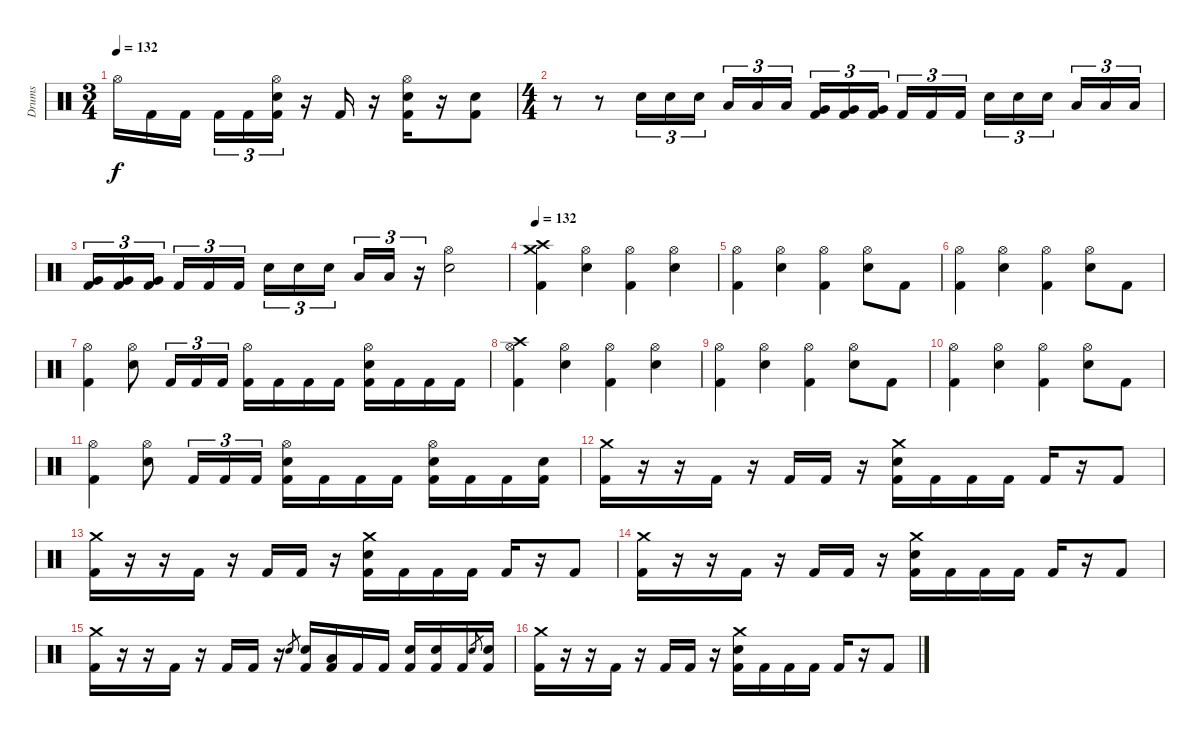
\track ("Drums" "Drums") {instrument percussion}
\staff {score}
\articulation defaults
\ts (3 4)
\tempo 132
\clef neutral
\ks c "Hi-Hat (open)".16{dy f} "Kick (hit) 2".16 "Kick (hit) 2".16{beam splitsecondary} "Kick (hit) 2".16{tu (3 2)} "Kick (hit) 2".16{tu (3 2)}
("Hi-Hat (open)" "Electric Snare (hit)" "Kick (hit) 2").16{tu (3 2)} r.16 "Kick (hit) 2".16 r.16 ("Hi-Hat (open)" "Electric Snare (hit)" "Kick (hit) 2").16 r.16 ("Electric Snare (hit)" "Kick (hit) 2").8 |
\ts (4 4)
r.8 r.8 "Electric Snare (hit)".16{tu (3 2)} "Electric Snare (hit)".16{tu (3 2)} "Electric Snare (hit)".16{tu (3 2) beam splitsecondary} "Low Tom (hit)".16{tu (3 2)} "Low Tom (hit)".16{tu (3 2)} "Low Tom (hit)".16{tu (3 2)} ("Very Low Tom (hit)" "Kick (hit) 2").16{tu (3 2)} ("Very Low Tom (hit)" "Kick (hit) 2").16{tu (3 2)} ("Very Low Tom (hit)" "Kick (hit) 2").16{tu (3 2) beam splitsecondary} "Kick (hit) 2".16{tu (3 2)} "Kick (hit) 2".16{tu (3 2)} "Kick (hit) 2".16{tu (3 2)} "Electric Snare (hit)".16{tu (3 2)} "Electric Snare (hit)".16{tu (3 2)} "Electric Snare (hit)".16{tu (3 2) beam splitsecondary} "Low Tom (hit)".16{tu (3 2)} "Low Tom (hit)".16{tu (3 2)} "Low Tom (hit)".16{tu (3 2)} |
("Very Low Tom (hit)" "Kick (hit) 2").16{tu (3 2)} ("Very Low Tom (hit)" "Kick (hit) 2").16{tu (3 2)} ("Very Low Tom (hit)" "Kick (hit) 2").16{tu (3 2) beam splitsecondary} "Kick (hit) 2".16{tu (3 2)} "Kick (hit) 2".16{tu (3 2)} "Kick (hit) 2".16{tu (3 2)} "Electric Snare (hit)".16{tu (3 2)} "Electric Snare (hit)".16{tu (3 2)} "Electric Snare (hit)".16{tu (3 2) beam splitsecondary} "Low Tom (hit)".16{tu (3 2)} "Low Tom (hit)".16{tu (3 2)} r.16{tu (3 2)} ("Hi-Hat (open)" "Electric Snare (hit)").2 |
\tempo 132
("Crash high (hit)" "Crash medium (hit)" "Kick (hit) 2").4 ("Hi-Hat (open)" "Electric Snare (hit)").4 ("Hi-Hat (open)" "Kick (hit) 2").4 ("Hi-Hat (open)" "Electric Snare (hit)").4 |
("Hi-Hat (open)" "Kick (hit) 2").4 ("Hi-Hat (open)" "Electric Snare (hit)").4 ("Hi-Hat (open)" "Kick (hit) 2").4 ("Hi-Hat (open)" "Electric Snare (hit)").8 "Kick (hit) 2".8 |
("Hi-Hat (open)" "Kick (hit) 2").4 ("Hi-Hat (open)" "Electric Snare (hit)").4 ("Hi-Hat (open)" "Kick (hit) 2").4 ("Hi-Hat (open)" "Electric Snare (hit)").8 "Kick (hit) 2".8 |
("Hi-Hat (open)" "Kick (hit) 2").4 ("Hi-Hat (open)" "Electric Snare (hit)").8 "Kick (hit) 2".16{tu (3 2)} "Kick (hit) 2".16{tu (3 2)} "Kick (hit) 2".16{tu (3 2)} ("Hi-Hat (open)" "Kick (hit) 2").16 "Kick (hit) 2".16 "Kick (hit) 2".16 "Kick (hit) 2".16 ("Hi-Hat (open)" "Electric Snare (hit)" "Kick (hit) 2").16 "Kick (hit) 2".16 "Kick (hit) 2".16 "Kick (hit) 2".16 |
("Crash high (hit)" "Hi-Hat (open)" "Kick (hit) 2").4 ("Hi-Hat (open)" "Electric Snare (hit)").4 ("Hi-Hat (open)" "Kick (hit) 2").4 ("Hi-Hat (open)" "Electric Snare (hit)").4 |
("Hi-Hat (open)" "Kick (hit) 2").4 ("Hi-Hat (open)" "Electric Snare (hit)").4 ("Hi-Hat (open)" "Kick (hit) 2").4 ("Hi-Hat (open)" "Electric Snare (hit)").8 "Kick (hit) 2".8 |
("Hi-Hat (open)" "Kick (hit) 2").4 ("Hi-Hat (open)" "Electric Snare (hit)").4 ("Hi-Hat (open)" "Kick (hit) 2").4 ("Hi-Hat (open)" "Electric Snare (hit)").8 "Kick (hit) 2".8 |
("Hi-Hat (open)" "Kick (hit) 2").4 ("Hi-Hat (open)" "Electric Snare (hit)").8 "Kick (hit) 2".16{tu (3 2)} "Kick (hit) 2".16{tu (3 2)} "Kick (hit) 2".16{tu (3 2)} ("Hi-Hat (open)" "Electric Snare (hit)" "Kick (hit) 2").16 "Kick (hit) 2".16 "Kick (hit) 2".16 "Kick (hit) 2".16 ("Hi-Hat (open)" "Electric Snare (hit)" "Kick (hit) 2").16 "Kick (hit) 2".16 "Kick (hit) 2".16 ("Electric Snare (hit)" "Kick (hit) 2").16 |
("Crash medium (hit)" "Kick (hit) 2").16 r.16 r.16 "Kick (hit) 2".16 r.16 "Kick (hit) 2".16 "Kick (hit) 2".16 r.16 ("Crash medium (hit)" "Electric Snare (hit)" "Kick (hit) 2").16 "Kick (hit) 2".16 "Kick (hit) 2".16 "Kick (hit) 2".16 "Kick (hit) 2".16 r.16 "Kick (hit) 2".8 |
("Crash medium (hit)" "Kick (hit) 2").16 r.16 r.16 "Kick (hit) 2".16 r.16 "Kick (hit) 2".16 "Kick (hit) 2".16 r.16 ("Crash medium (hit)" "Electric Snare (hit)" "Kick (hit) 2").16 "Kick (hit) 2".16 "Kick (hit) 2".16 "Kick (hit) 2".16 "Kick (hit) 2".16 r.16 "Kick (hit) 2".8 |
("Crash medium (hit)" "Kick (hit) 2").16 r.16 r.16 "Kick (hit) 2".16 r.16 "Kick (hit) 2".16 "Kick (hit) 2".16 r.16 ("Crash medium (hit)" "Electric Snare (hit)" "Kick (hit) 2").16 "Kick (hit) 2".16 "Kick (hit) 2".16 "Kick (hit) 2".16 "Kick (hit) 2".16 r.16 "Kick (hit) 2".8 |
("Crash medium (hit)" "Kick (hit) 2").16 r.16 r.16 "Kick (hit) 2".16 r.16 "Kick (hit) 2".16 "Kick (hit) 2".16 r.16 "Electric Snare (hit)".8{gr} ("Electric Snare (hit)" "Kick (hit) 2").16 ("Low Tom (hit)" "Kick (hit) 2").16 "Kick (hit) 2".16 "Kick (hit) 2".16 ("Electric Snare (hit)" "Kick (hit) 2").16 ("Electric Snare (hit)" "Kick (hit) 2").16 "Kick (hit) 2".16 "Electric Snare (hit)".8{gr} ("Electric Snare (hit)" "Kick (hit) 2").16 |
("Crash medium (hit)" "Kick (hit) 2").16 r.16 r.16 "Kick (hit) 2".16 r.16 "Kick (hit) 2".16 "Kick (hit) 2".16 r.16 ("Crash medium (hit)" "Electric Snare (hit)" "Kick (hit) 2").16 "Kick (hit) 2".16 "Kick (hit) 2".16 "Kick (hit) 2".16 "Kick (hit) 2".16 r.16 "Kick (hit) 2".8
